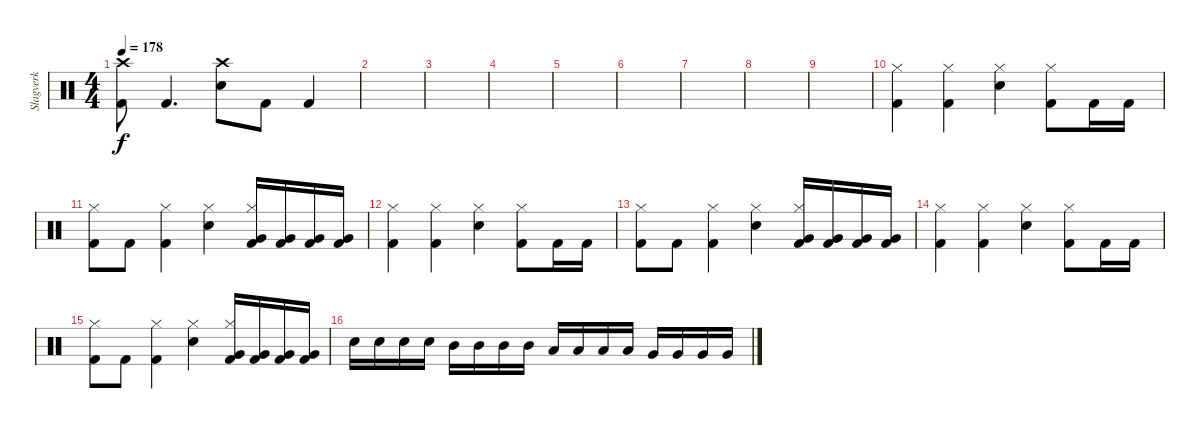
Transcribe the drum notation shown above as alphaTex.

\track ("Slagverk" "Slagverk") {instrument percussion}
\staff {score}
\articulation defaults
\ts (4 4)
\tempo 178
\clef neutral
\ks c
("Crash high (hit)" "Kick (hit) 2").8{dy f} "Kick (hit) 2".4{d} ("Crash high (hit)" "Electric Snare (hit)").8 "Kick (hit) 2".8 "Kick (hit) 2".4 |
|
|
|
|
|
|
|
|
("Hi-Hat (closed)" "Kick (hit) 2").4 ("Hi-Hat (closed)" "Kick (hit) 2").4 ("Hi-Hat (closed)" "Electric Snare (hit)").4 ("Hi-Hat (closed)" "Kick (hit) 2").8 "Kick (hit) 2".16 "Kick (hit) 2".16 |
("Hi-Hat (closed)" "Kick (hit) 2").8 "Kick (hit) 2".8 ("Hi-Hat (closed)" "Kick (hit) 2").4 ("Hi-Hat (closed)" "Electric Snare (hit)").4 ("Hi-Hat (closed)" "Very Low Tom (hit)" "Kick (hit) 2").16 ("Very Low Tom (hit)" "Kick (hit) 2").16 ("Very Low Tom (hit)" "Kick (hit) 2").16 ("Very Low Tom (hit)" "Kick (hit) 2").16 |
("Hi-Hat (closed)" "Kick (hit) 2").4 ("Hi-Hat (closed)" "Kick (hit) 2").4 ("Hi-Hat (closed)" "Electric Snare (hit)").4 ("Hi-Hat (closed)" "Kick (hit) 2").8 "Kick (hit) 2".16 "Kick (hit) 2".16 |
("Hi-Hat (closed)" "Kick (hit) 2").8 "Kick (hit) 2".8 ("Hi-Hat (closed)" "Kick (hit) 2").4 ("Hi-Hat (closed)" "Electric Snare (hit)").4 ("Hi-Hat (closed)" "Very Low Tom (hit)" "Kick (hit) 2").16 ("Very Low Tom (hit)" "Kick (hit) 2").16 ("Very Low Tom (hit)" "Kick (hit) 2").16 ("Very Low Tom (hit)" "Kick (hit) 2").16 |
("Hi-Hat (closed)" "Kick (hit) 2").4 ("Hi-Hat (closed)" "Kick (hit) 2").4 ("Hi-Hat (closed)" "Electric Snare (hit)").4 ("Hi-Hat (closed)" "Kick (hit) 2").8 "Kick (hit) 2".16 "Kick (hit) 2".16 |
("Hi-Hat (closed)" "Kick (hit) 2").8 "Kick (hit) 2".8 ("Hi-Hat (closed)" "Kick (hit) 2").4 ("Hi-Hat (closed)" "Electric Snare (hit)").4 ("Hi-Hat (closed)" "Very Low Tom (hit)" "Kick (hit) 2").16 ("Very Low Tom (hit)" "Kick (hit) 2").16 ("Very Low Tom (hit)" "Kick (hit) 2").16 ("Very Low Tom (hit)" "Kick (hit) 2").16 |
"Electric Snare (hit)".16 "Electric Snare (hit)".16 "Electric Snare (hit)".16 "Electric Snare (hit)".16 "Mid Tom (hit)".16 "Mid Tom (hit)".16 "Mid Tom (hit)".16 "Mid Tom (hit)".16 "Low Tom (hit)".16 "Low Tom (hit)".16 "Low Tom (hit)".16 "Low Tom (hit)".16 "Very Low Tom (hit)".16 "Very Low Tom (hit)".16 "Very Low Tom (hit)".16 "Very Low Tom (hit)".16
